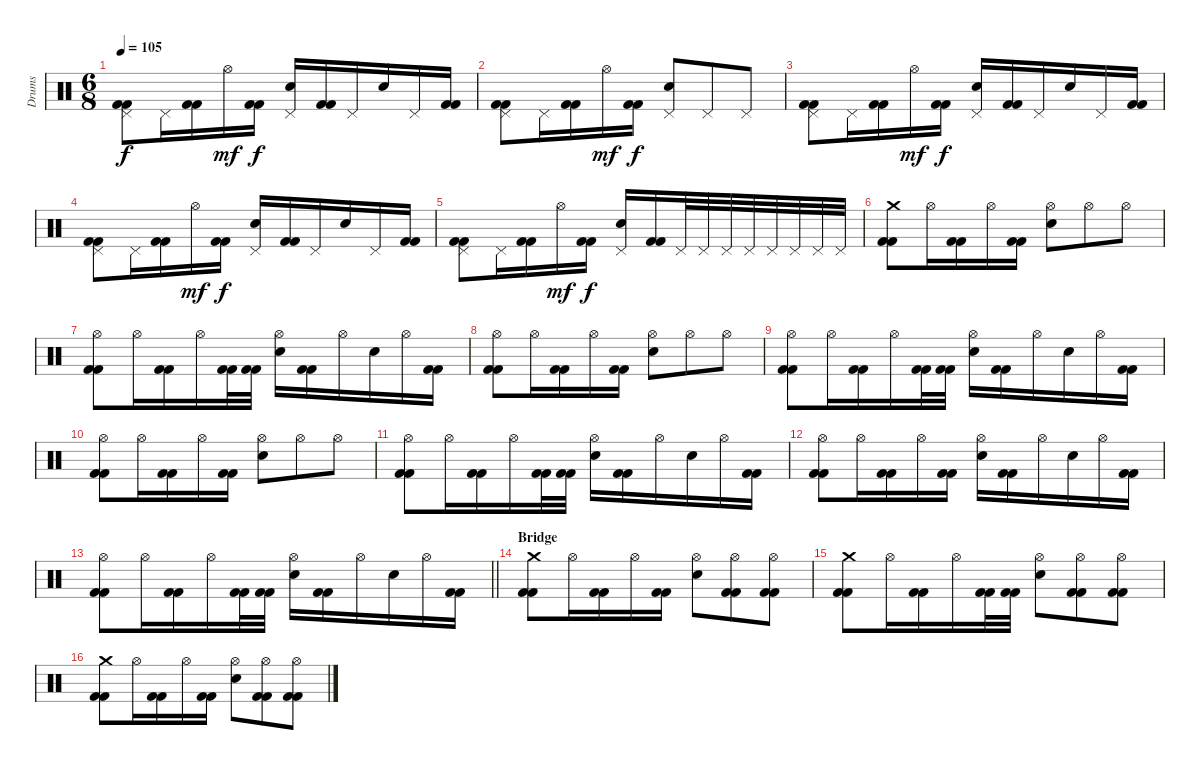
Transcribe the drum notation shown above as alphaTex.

\track ("Drums" "Drums") {instrument percussion}
\staff {score}
\articulation defaults
\ts (6 8)
\tempo 105
\clef neutral
\ks c
("Pedal Hi-Hat (hit)" "Kick (hit) 2" "Kick (hit) 2").8{dy f} "Pedal Hi-Hat (hit)".16 ("Kick (hit) 2" "Kick (hit) 2").16 "Hi-Hat (open)".16{dy mf} ("Kick (hit) 2" "Kick (hit) 2").16{dy f} ("Pedal Hi-Hat (hit)" "Electric Snare (hit)").16 ("Kick (hit) 2" "Kick (hit) 2").16 "Pedal Hi-Hat (hit)".16 "Electric Snare (hit)".16 "Pedal Hi-Hat (hit)".16 ("Kick (hit) 2" "Kick (hit) 2").16 |
("Pedal Hi-Hat (hit)" "Kick (hit) 2" "Kick (hit) 2").8 "Pedal Hi-Hat (hit)".16 ("Kick (hit) 2" "Kick (hit) 2").16 "Hi-Hat (open)".16{dy mf} ("Kick (hit) 2" "Kick (hit) 2").16{dy f} ("Pedal Hi-Hat (hit)" "Electric Snare (hit)").8 "Pedal Hi-Hat (hit)".8 "Pedal Hi-Hat (hit)".8 |
("Pedal Hi-Hat (hit)" "Kick (hit) 2" "Kick (hit) 2").8 "Pedal Hi-Hat (hit)".16 ("Kick (hit) 2" "Kick (hit) 2").16 "Hi-Hat (open)".16{dy mf} ("Kick (hit) 2" "Kick (hit) 2").16{dy f} ("Pedal Hi-Hat (hit)" "Electric Snare (hit)").16 ("Kick (hit) 2" "Kick (hit) 2").16 "Pedal Hi-Hat (hit)".16 "Electric Snare (hit)".16 "Pedal Hi-Hat (hit)".16 ("Kick (hit) 2" "Kick (hit) 2").16 |
("Pedal Hi-Hat (hit)" "Kick (hit) 2" "Kick (hit) 2").8 "Pedal Hi-Hat (hit)".16 ("Kick (hit) 2" "Kick (hit) 2").16 "Hi-Hat (open)".16{dy mf} ("Kick (hit) 2" "Kick (hit) 2").16{dy f} ("Pedal Hi-Hat (hit)" "Electric Snare (hit)").16 ("Kick (hit) 2" "Kick (hit) 2").16 "Pedal Hi-Hat (hit)".16 "Electric Snare (hit)".16 "Pedal Hi-Hat (hit)".16 ("Kick (hit) 2" "Kick (hit) 2").16 |
("Pedal Hi-Hat (hit)" "Kick (hit) 2" "Kick (hit) 2").8 "Pedal Hi-Hat (hit)".16 ("Kick (hit) 2" "Kick (hit) 2").16 "Hi-Hat (open)".16{dy mf} ("Kick (hit) 2" "Kick (hit) 2").16{dy f} ("Pedal Hi-Hat (hit)" "Electric Snare (hit)").16 ("Kick (hit) 2" "Kick (hit) 2").16 "Pedal Hi-Hat (hit)".32 "Pedal Hi-Hat (hit)".32 "Pedal Hi-Hat (hit)".32 "Pedal Hi-Hat (hit)".32 "Pedal Hi-Hat (hit)".32 "Pedal Hi-Hat (hit)".32 "Pedal Hi-Hat (hit)".32 "Pedal Hi-Hat (hit)".32 |
("Crash medium (hit)" "Kick (hit) 2" "Kick (hit) 2").8 "Hi-Hat (open)".16 ("Kick (hit) 2" "Kick (hit) 2").16 "Hi-Hat (open)".16 ("Kick (hit) 2" "Kick (hit) 2").16 ("Hi-Hat (open)" "Electric Snare (hit)").8 "Hi-Hat (open)".8 "Hi-Hat (open)".8 |
("Hi-Hat (open)" "Kick (hit) 2" "Kick (hit) 2").8 "Hi-Hat (open)".16 ("Kick (hit) 2" "Kick (hit) 2").16 "Hi-Hat (open)".16 ("Kick (hit) 2" "Kick (hit) 2").32 ("Kick (hit) 2" "Kick (hit) 2").32 ("Hi-Hat (open)" "Electric Snare (hit)").16 ("Kick (hit) 2" "Kick (hit) 2").16 "Hi-Hat (open)".16 "Electric Snare (hit)".16 "Hi-Hat (open)".16 ("Kick (hit) 2" "Kick (hit) 2").16 |
("Hi-Hat (open)" "Kick (hit) 2" "Kick (hit) 2").8 "Hi-Hat (open)".16 ("Kick (hit) 2" "Kick (hit) 2").16 "Hi-Hat (open)".16 ("Kick (hit) 2" "Kick (hit) 2").16 ("Hi-Hat (open)" "Electric Snare (hit)").8 "Hi-Hat (open)".8 "Hi-Hat (open)".8 |
("Hi-Hat (open)" "Kick (hit) 2" "Kick (hit) 2").8 "Hi-Hat (open)".16 ("Kick (hit) 2" "Kick (hit) 2").16 "Hi-Hat (open)".16 ("Kick (hit) 2" "Kick (hit) 2").32 ("Kick (hit) 2" "Kick (hit) 2").32 ("Hi-Hat (open)" "Electric Snare (hit)").16 ("Kick (hit) 2" "Kick (hit) 2").16 "Hi-Hat (open)".16 "Electric Snare (hit)".16 "Hi-Hat (open)".16 ("Kick (hit) 2" "Kick (hit) 2").16 |
("Hi-Hat (open)" "Kick (hit) 2" "Kick (hit) 2").8 "Hi-Hat (open)".16 ("Kick (hit) 2" "Kick (hit) 2").16 "Hi-Hat (open)".16 ("Kick (hit) 2" "Kick (hit) 2").16 ("Hi-Hat (open)" "Electric Snare (hit)").8 "Hi-Hat (open)".8 "Hi-Hat (open)".8 |
("Hi-Hat (open)" "Kick (hit) 2" "Kick (hit) 2").8 "Hi-Hat (open)".16 ("Kick (hit) 2" "Kick (hit) 2").16 "Hi-Hat (open)".16 ("Kick (hit) 2" "Kick (hit) 2").32 ("Kick (hit) 2" "Kick (hit) 2").32 ("Hi-Hat (open)" "Electric Snare (hit)").16 ("Kick (hit) 2" "Kick (hit) 2").16 "Hi-Hat (open)".16 "Electric Snare (hit)".16 "Hi-Hat (open)".16 ("Kick (hit) 2" "Kick (hit) 2").16 |
("Hi-Hat (open)" "Kick (hit) 2" "Kick (hit) 2").8 "Hi-Hat (open)".16 ("Kick (hit) 2" "Kick (hit) 2").16 "Hi-Hat (open)".16 ("Kick (hit) 2" "Kick (hit) 2").16 ("Hi-Hat (open)" "Electric Snare (hit)").16 ("Kick (hit) 2" "Kick (hit) 2").16 "Hi-Hat (open)".16 "Electric Snare (hit)".16 "Hi-Hat (open)".16 ("Kick (hit) 2" "Kick (hit) 2").16 |
\barLineRight lightlight
("Hi-Hat (open)" "Kick (hit) 2" "Kick (hit) 2").8 "Hi-Hat (open)".16 ("Kick (hit) 2" "Kick (hit) 2").16 "Hi-Hat (open)".16 ("Kick (hit) 2" "Kick (hit) 2").32 ("Kick (hit) 2" "Kick (hit) 2").32 ("Hi-Hat (open)" "Electric Snare (hit)").16 ("Kick (hit) 2" "Kick (hit) 2").16 "Hi-Hat (open)".16 "Electric Snare (hit)".16 "Hi-Hat (open)".16 ("Kick (hit) 2" "Kick (hit) 2").16 |
\section ("" "Bridge")
("Crash medium (hit)" "Kick (hit) 2" "Kick (hit) 2").8 "Hi-Hat (open)".16 ("Kick (hit) 2" "Kick (hit) 2").16 "Hi-Hat (open)".16 ("Kick (hit) 2" "Kick (hit) 2").16 ("Hi-Hat (open)" "Electric Snare (hit)").8 ("Hi-Hat (open)" "Kick (hit) 2" "Kick (hit) 2").8 ("Hi-Hat (open)" "Kick (hit) 2" "Kick (hit) 2").8 |
("Crash medium (hit)" "Kick (hit) 2" "Kick (hit) 2").8 "Hi-Hat (open)".16 ("Kick (hit) 2" "Kick (hit) 2").16 "Hi-Hat (open)".16 ("Kick (hit) 2" "Kick (hit) 2").32 ("Kick (hit) 2" "Kick (hit) 2").32 ("Hi-Hat (open)" "Electric Snare (hit)").8 ("Hi-Hat (open)" "Kick (hit) 2" "Kick (hit) 2").8 ("Hi-Hat (open)" "Kick (hit) 2" "Kick (hit) 2").8 |
("Crash medium (hit)" "Kick (hit) 2" "Kick (hit) 2").8 "Hi-Hat (open)".16 ("Kick (hit) 2" "Kick (hit) 2").16 "Hi-Hat (open)".16 ("Kick (hit) 2" "Kick (hit) 2").16 ("Hi-Hat (open)" "Electric Snare (hit)").8 ("Hi-Hat (open)" "Kick (hit) 2" "Kick (hit) 2").8 ("Hi-Hat (open)" "Kick (hit) 2" "Kick (hit) 2").8
